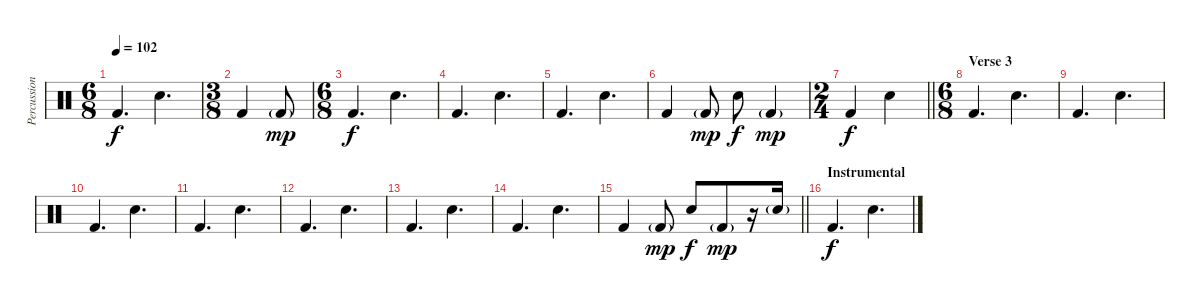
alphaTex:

\track ("Percussion" "Percussion") {instrument percussion}
\staff {score}
\articulation defaults
\ts (6 8)
\tempo 102
\clef neutral
\ks c "Kick (hit) 2".4{d dy f} "Snare (hit) 2".4{d}
|
\ts (3 8)
"Kick (hit) 2".4 "Kick (hit) 2"{g}.8{dy mp} |
\ts (6 8)
"Kick (hit) 2".4{d dy f} "Snare (hit) 2".4{d} |
"Kick (hit) 2".4{d} "Snare (hit) 2".4{d} |
"Kick (hit) 2".4{d} "Snare (hit) 2".4{d} |
"Kick (hit) 2".4 "Kick (hit) 2"{g}.8{dy mp} "Snare (hit) 2".8{dy f} "Kick (hit) 2"{g}.4{dy mp} |
\ts (2 4)
\barLineRight lightlight "Kick (hit) 2".4{dy f} "Snare (hit) 2".4
|
\ts (6 8)
\section ("" "Verse 3")
"Kick (hit) 2".4{d} "Snare (hit) 2".4{d} |
"Kick (hit) 2".4{d} "Snare (hit) 2".4{d} |
"Kick (hit) 2".4{d} "Snare (hit) 2".4{d} |
"Kick (hit) 2".4{d} "Snare (hit) 2".4{d} |
"Kick (hit) 2".4{d} "Snare (hit) 2".4{d} |
"Kick (hit) 2".4{d} "Snare (hit) 2".4{d} |
"Kick (hit) 2".4{d} "Snare (hit) 2".4{d} |
\barLineRight lightlight "Kick (hit) 2".4 "Kick (hit) 2"{g}.8{dy mp} "Snare (hit) 2".8{dy f} "Kick (hit) 2"{g}.8{dy mp}
r.16 "Snare (hit) 2"{g}.16 |
\section ("" "Instrumental")
"Kick (hit) 2".4{d dy f} "Snare (hit) 2".4{d}
